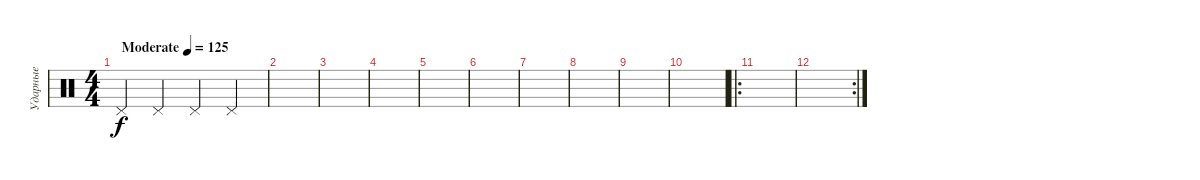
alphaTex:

\track ("Ударные" "Ударные") {instrument percussion}
\staff {score}
\articulation defaults
\ts (4 4)
\tempo (125 "Moderate")
\clef neutral
\ks c "Pedal Hi-Hat (hit)".4{dy f} "Pedal Hi-Hat (hit)".4 "Pedal Hi-Hat (hit)".4 "Pedal Hi-Hat (hit)".4
|
|
|
|
|
|
|
|
|
|
\ro
|
\rc 2
